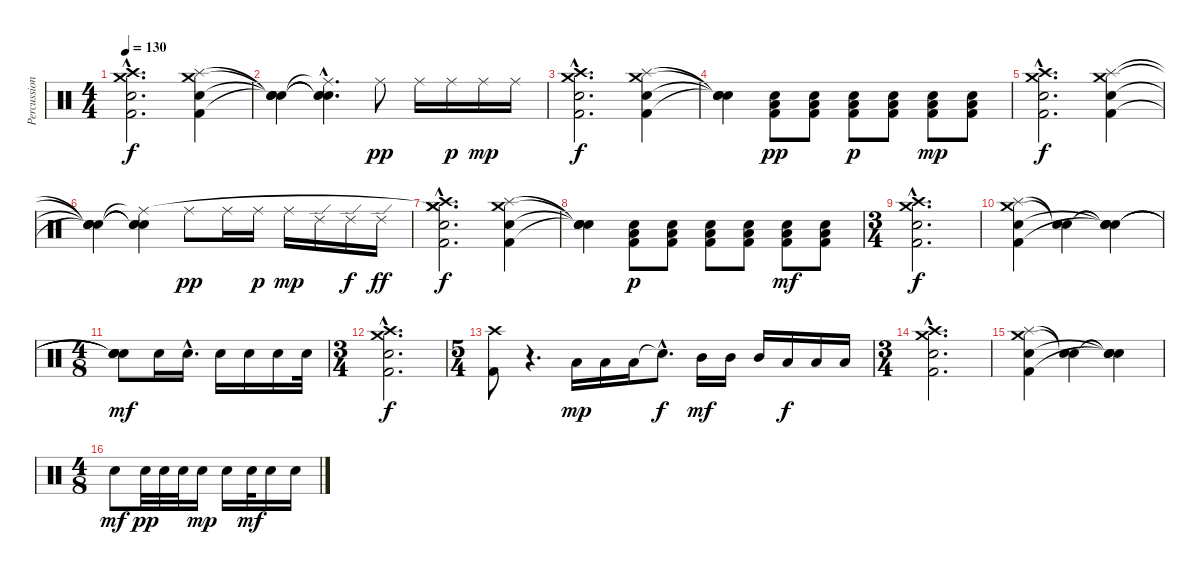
\track ("Percussion" "Percussion") {instrument percussion}
\staff {score}
\articulation defaults
\ts (4 4)
\tempo 130
\clef neutral
\ks c
("Crash high (hit)"{hac} "Crash medium (hit)"{hac} "Snare (hit) 2"{hac} "Kick (hit) 2"{hac}).2{d dy f} ("Splash (hit)" "Crash medium (hit)" "Snare (hit) 2" "Kick (hit) 2").4 |
("Snare (hit)"{t} "Snare (hit)"{t} "Snare (hit)"{t} "Snare (hit)"{t}).4 ("Snare (hit)"{hac t} "Ride (middle)"{hac t} "Snare (hit)"{hac t} "Snare (hit)"{hac t}).4{d} "Ride (middle)".8{dy pp} "Ride (middle)".16 "Ride (middle)".16{dy p} "Ride (middle)".16{dy mp} "Ride (middle)".16 |
("Crash high (hit)"{hac} "Crash medium (hit)"{hac} "Snare (hit) 2"{hac} "Kick (hit) 2"{hac}).2{d dy f} ("Splash (hit)" "Crash medium (hit)" "Snare (hit) 2" "Kick (hit) 2").4 |
("Snare (hit)"{t} "Snare (hit)"{t} "Snare (hit)"{t} "Snare (hit)"{t}).4 ("Low Floor Tom (hit)" "Snare (hit) 2" "Kick (hit) 2").8{dy pp} ("Low Floor Tom (hit)" "Snare (hit) 2" "Kick (hit) 2").8 ("Low Floor Tom (hit)" "Snare (hit) 2" "Kick (hit) 2").8{dy p} ("Low Floor Tom (hit)" "Snare (hit) 2" "Kick (hit) 2").8 ("Low Floor Tom (hit)" "Snare (hit) 2" "Kick (hit) 2").8{dy mp} ("Low Floor Tom (hit)" "Snare (hit) 2" "Kick (hit) 2").8 |
("Crash high (hit)"{hac} "Crash medium (hit)"{hac} "Snare (hit) 2"{hac} "Kick (hit) 2"{hac}).2{d dy f} ("Splash (hit)" "Crash medium (hit)" "Snare (hit) 2" "Kick (hit) 2").4 |
("Snare (hit)"{t} "Snare (hit)"{t} "Snare (hit)"{t} "Snare (hit)"{t}).4 ("Snare (hit)"{t} "Ride (middle)"{t} "Snare (hit)"{t} "Snare (hit)"{t}).4 "Ride (middle)".8{dy pp} "Ride (middle)".16 "Ride (middle)".16{dy p} "Ride (middle)".16{dy mp} "Ride (edge) 2".16 "Ride (edge) 2".16{dy f} "Ride (edge) 2".16{dy ff} |
("Crash high (hit)"{hac} "Crash medium (hit)"{hac t} "Crash medium (hit)"{hac} "Snare (hit) 2"{hac} "Kick (hit) 2"{hac}).2{d dy f} ("Splash (hit)" "Crash medium (hit)" "Snare (hit) 2" "Kick (hit) 2").4 |
("Snare (hit)"{t} "Snare (hit)"{t} "Snare (hit)"{t} "Snare (hit)"{t}).4 ("Low Floor Tom (hit)" "Snare (hit) 2" "Kick (hit) 2").8{dy p} ("Low Floor Tom (hit)" "Snare (hit) 2" "Kick (hit) 2").8 ("Low Floor Tom (hit)" "Snare (hit) 2" "Kick (hit) 2").8 ("Low Floor Tom (hit)" "Snare (hit) 2" "Kick (hit) 2").8 ("Low Floor Tom (hit)" "Snare (hit) 2" "Kick (hit) 2").8{dy mf} ("Low Floor Tom (hit)" "Snare (hit) 2" "Kick (hit) 2").8 |
\ts (3 4)
("Crash high (hit)"{hac} "Crash medium (hit)"{hac} "Snare (hit) 2"{hac} "Kick (hit) 2"{hac}).2{d dy f} |
("Splash (hit)" "Crash medium (hit)" "Snare (hit) 2" "Kick (hit) 2").4 ("Snare (hit)"{t} "Snare (hit)"{t}).4 ("Snare (hit)"{t} "Snare (hit)"{t} "Snare (hit)"{t} "Snare (hit)"{t}).4 |
\ts (4 8)
("Snare (hit)"{t} "Snare (hit)"{t} "Snare (hit) 2" "Snare (hit)"{t}).8{dy mf} "Snare (hit) 2".16 "Snare (hit) 2"{hac}.16{d} "Snare (hit) 2".16 "Snare (hit) 2".16 "Snare (hit) 2".16 "Snare (hit) 2".32 |
\ts (3 4)
("Crash high (hit)"{hac} "Crash medium (hit)"{hac} "Snare (hit) 2"{hac} "Kick (hit) 2"{hac}).2{d dy f} |
\ts (5 4)
("Crash high (hit)" "Kick (hit) 2").8 r.4{d} "Low Tom (hit)".16{dy mp} "Low Tom (hit)".16 "Low Tom (hit)".16 "Snare (hit) 2"{hac t}.8{d dy f} "Mid Tom (hit)".16{dy mf} "Mid Tom (hit)".16 "Mid Tom (hit)".16 "Low Floor Tom (hit)".16{dy f} "Low Floor Tom (hit)".16 "Low Floor Tom (hit)".16 |
\ts (3 4)
("Crash high (hit)"{hac} "Crash medium (hit)"{hac} "Snare (hit) 2"{hac} "Kick (hit) 2"{hac}).2{d} |
("Splash (hit)" "Crash medium (hit)" "Snare (hit) 2" "Kick (hit) 2").4 ("Snare (hit)"{t} "Snare (hit)"{t}).4 ("Snare (hit)"{t} "Snare (hit)"{t} "Snare (hit)"{t} "Snare (hit)"{t}).4 |
\ts (4 8)
"Snare (hit) 2".8{dy mf} "Snare (hit) 2".32{dy pp} "Snare (hit) 2".32 "Snare (hit) 2".32 "Snare (hit) 2".16{dy mp} "Snare (hit) 2".16 "Snare (hit) 2".32{dy mf} "Snare (hit) 2".16 "Snare (hit) 2".16
